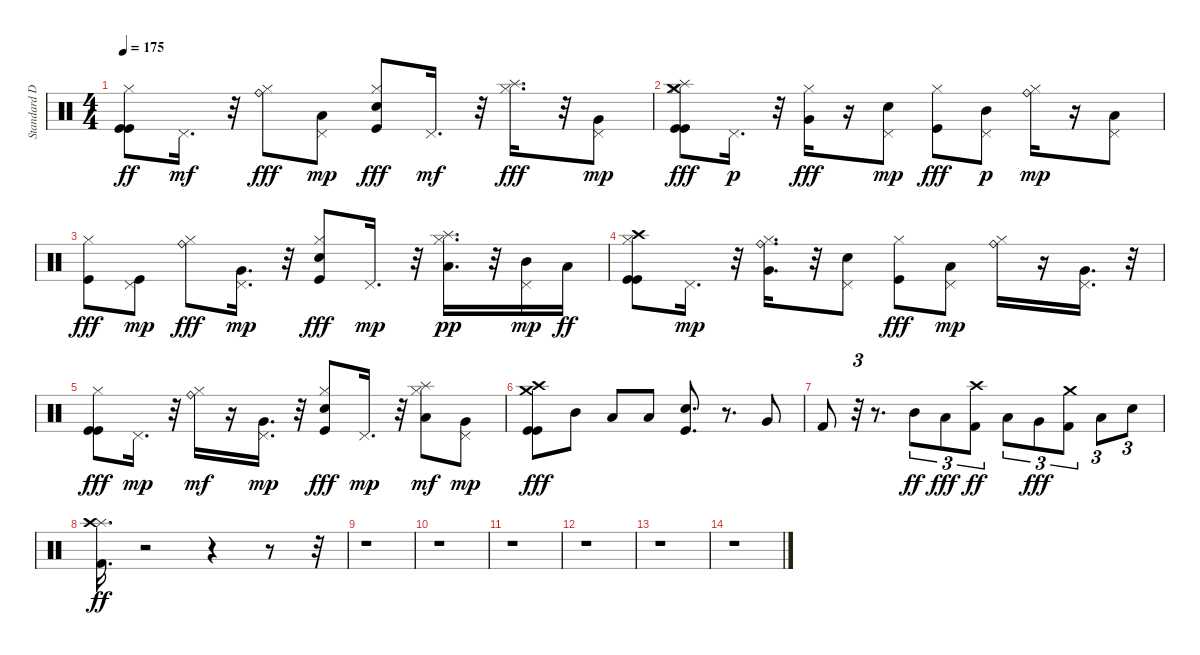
\track ("Standard Drums" "Standard D") {instrument percussion}
\staff {score}
\articulation defaults
\ts (4 4)
\tempo 175
\clef neutral
\ks c
("Kick (hit)" "Kick (hit)" "Hi-Hat (closed)").8{dy ff} "Pedal Hi-Hat (hit)".16{d dy mf} r.32 ("Ride (bell)" "Hi-Hat (closed)").8{dy fff} ("Low Tom (hit)" "Pedal Hi-Hat (hit)").8{dy mp} ("Snare (hit) 2" "Kick (hit)" "Hi-Hat (closed)").8{dy fff} "Pedal Hi-Hat (hit)".16{d dy mf} r.32 ("Splash (hit)" "Hi-Hat (closed)").16{d dy fff} r.32 ("Very Low Tom (hit)" "Pedal Hi-Hat (hit)").8{dy mp} |
("Crash medium (hit)" "Splash (hit)" "Kick (hit)" "Kick (hit)" "Hi-Hat (closed)").8{dy fff} "Pedal Hi-Hat (hit)".16{d dy p} r.32 ("Very Low Tom (hit)" "Hi-Hat (closed)").16{dy fff} r.16 ("Snare (hit) 2" "Pedal Hi-Hat (hit)").8{dy mp} ("Kick (hit)" "Hi-Hat (closed)").8{dy fff} ("Mid Tom (hit)" "Pedal Hi-Hat (hit)").8{dy p} ("Ride (bell)" "Hi-Hat (closed)").16{dy mp} r.16 ("Low Tom (hit)" "Pedal Hi-Hat (hit)").8 |
("Kick (hit)" "Hi-Hat (closed)").8{dy fff} ("Kick (hit)" "Pedal Hi-Hat (hit)").8{dy mp} ("Ride (bell)" "Hi-Hat (closed)").8{dy fff} ("Very Low Tom (hit)" "Pedal Hi-Hat (hit)").16{d dy mp} r.32 ("Snare (hit) 2" "Kick (hit)" "Hi-Hat (closed)").8{dy fff} "Pedal Hi-Hat (hit)".16{d dy mp} r.32 ("Splash (hit)" "Low Tom (hit)" "Hi-Hat (closed)").16{d dy pp} r.32 ("Mid Tom (hit)" "Pedal Hi-Hat (hit)").16{dy mp} "Low Tom (hit)".16{dy ff} |
("Crash high (hit)" "Kick (hit)" "Kick (hit)" "Hi-Hat (closed)").8 "Pedal Hi-Hat (hit)".16{d dy mp} r.32 ("Ride (bell)" "Very Low Tom (hit)" "Hi-Hat (closed)").16{d} r.32 ("Snare (hit) 2" "Pedal Hi-Hat (hit)").8 ("Kick (hit)" "Hi-Hat (closed)").8{dy fff} ("Low Tom (hit)" "Pedal Hi-Hat (hit)").8{dy mp} ("Ride (bell)" "Hi-Hat (closed)").16 r.16 ("Very Low Tom (hit)" "Pedal Hi-Hat (hit)").16{d} r.32 |
("Kick (hit)" "Kick (hit)" "Hi-Hat (closed)").8{dy fff} "Pedal Hi-Hat (hit)".16{d dy mp} r.32 ("Ride (bell)" "Hi-Hat (closed)").16{dy mf} r.16 ("Very Low Tom (hit)" "Pedal Hi-Hat (hit)").16{d dy mp} r.32 ("Snare (hit) 2" "Kick (hit)" "Hi-Hat (closed)").8{dy fff} "Pedal Hi-Hat (hit)".16{d dy mp} r.32 ("Splash (hit)" "Low Tom (hit)" "Hi-Hat (closed)").8{dy mf} ("Very Low Tom (hit)" "Pedal Hi-Hat (hit)").8{dy mp} |
("Crash high (hit)" "Kick (hit)" "Crash medium (hit)" "Kick (hit)").8{dy fff} "Mid Tom (hit)".8 "Low Tom (hit)".8 "Low Tom (hit)".8 ("Snare (hit) 2" "Kick (hit)").8{d} r.8{d} "Very Low Tom (hit)".8 |
"Kick (hit) 2".8 r.32{tu (3 2)} r.8{d} "Mid Tom (hit)".8{tu (3 2) dy ff} "Low Tom (hit)".8{tu (3 2) dy fff} ("Kick (hit) 2" "Crash high (hit)").8{tu (3 2) dy ff} "Low Tom (hit)".8{tu (3 2)} "Very Low Tom (hit)".8{tu (3 2) dy fff} ("Crash medium (hit)" "Kick (hit) 2").8{tu (3 2)} "Low Tom (hit)".8{tu (3 2)} "Snare (hit) 2".8{tu (3 2)} |
("Splash (hit)" "Crash high (hit)" "Kick (hit) 2").16{d dy ff} r.2 r.4 r.8 r.32 |
r.1 |
r.1 |
r.1 |
r.1 |
r.1 |
r.1
